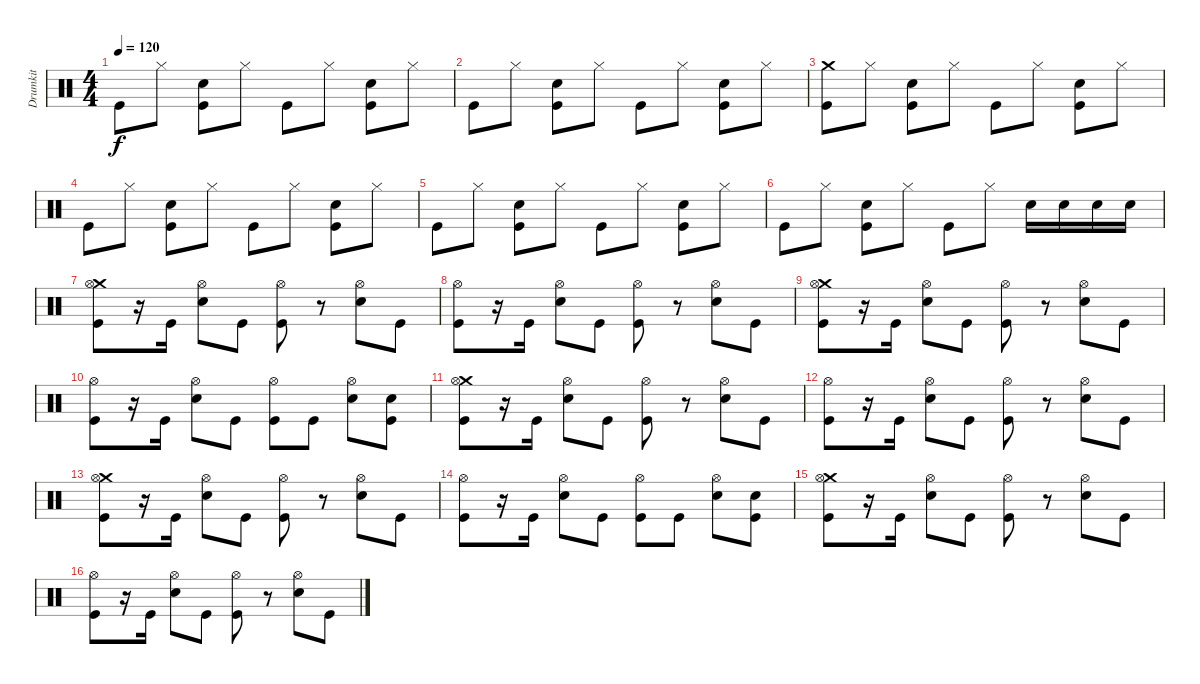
\track ("Drumkit" "Drumkit") {instrument percussion}
\staff {score}
\articulation defaults
\ts (4 4)
\tempo 120
\clef neutral
\ks c "Kick (hit)".8{dy f} "Hi-Hat (closed)".8
("Snare (hit) 2" "Kick (hit)").8 "Hi-Hat (closed)".8 "Kick (hit)".8 "Hi-Hat (closed)".8 ("Snare (hit) 2" "Kick (hit)").8 "Hi-Hat (closed)".8 |
"Kick (hit)".8 "Hi-Hat (closed)".8 ("Snare (hit) 2" "Kick (hit)").8 "Hi-Hat (closed)".8 "Kick (hit)".8 "Hi-Hat (closed)".8 ("Snare (hit) 2" "Kick (hit)").8 "Hi-Hat (closed)".8 |
("Crash medium (hit)" "Kick (hit)").8 "Hi-Hat (closed)".8 ("Snare (hit) 2" "Kick (hit)").8 "Hi-Hat (closed)".8 "Kick (hit)".8 "Hi-Hat (closed)".8 ("Snare (hit) 2" "Kick (hit)").8 "Hi-Hat (closed)".8 |
"Kick (hit)".8 "Hi-Hat (closed)".8 ("Snare (hit) 2" "Kick (hit)").8 "Hi-Hat (closed)".8 "Kick (hit)".8 "Hi-Hat (closed)".8 ("Snare (hit) 2" "Kick (hit)").8 "Hi-Hat (closed)".8 |
"Kick (hit)".8 "Hi-Hat (closed)".8 ("Snare (hit) 2" "Kick (hit)").8 "Hi-Hat (closed)".8 "Kick (hit)".8 "Hi-Hat (closed)".8 ("Snare (hit) 2" "Kick (hit)").8 "Hi-Hat (closed)".8 |
"Kick (hit)".8 "Hi-Hat (closed)".8 ("Snare (hit) 2" "Kick (hit)").8 "Hi-Hat (closed)".8 "Kick (hit)".8 "Hi-Hat (closed)".8 "Snare (hit) 2".16 "Snare (hit) 2".16 "Snare (hit) 2".16 "Snare (hit) 2".16 |
("Crash medium (hit)" "Hi-Hat (open)" "Kick (hit)").8 r.16 "Kick (hit)".16 ("Hi-Hat (open)" "Snare (hit) 2").8 "Kick (hit)".8 ("Hi-Hat (open)" "Kick (hit)").8 r.8 ("Hi-Hat (open)" "Snare (hit) 2").8 "Kick (hit)".8 |
("Hi-Hat (open)" "Kick (hit)").8 r.16 "Kick (hit)".16 ("Hi-Hat (open)" "Snare (hit) 2").8 "Kick (hit)".8 ("Hi-Hat (open)" "Kick (hit)").8 r.8 ("Hi-Hat (open)" "Snare (hit) 2").8 "Kick (hit)".8 |
("Crash medium (hit)" "Hi-Hat (open)" "Kick (hit)").8 r.16 "Kick (hit)".16 ("Hi-Hat (open)" "Snare (hit) 2").8 "Kick (hit)".8 ("Hi-Hat (open)" "Kick (hit)").8 r.8 ("Hi-Hat (open)" "Snare (hit) 2").8 "Kick (hit)".8 |
("Hi-Hat (open)" "Kick (hit)").8 r.16 "Kick (hit)".16 ("Hi-Hat (open)" "Snare (hit) 2").8 "Kick (hit)".8 ("Hi-Hat (open)" "Kick (hit)").8 "Kick (hit)".8 ("Hi-Hat (open)" "Snare (hit) 2").8 ("Snare (hit) 2" "Kick (hit)").8 |
("Crash medium (hit)" "Hi-Hat (open)" "Kick (hit)").8 r.16 "Kick (hit)".16 ("Hi-Hat (open)" "Snare (hit) 2").8 "Kick (hit)".8 ("Hi-Hat (open)" "Kick (hit)").8 r.8 ("Hi-Hat (open)" "Snare (hit) 2").8 "Kick (hit)".8 |
("Hi-Hat (open)" "Kick (hit)").8 r.16 "Kick (hit)".16 ("Hi-Hat (open)" "Snare (hit) 2").8 "Kick (hit)".8 ("Hi-Hat (open)" "Kick (hit)").8 r.8 ("Hi-Hat (open)" "Snare (hit) 2").8 "Kick (hit)".8 |
("Crash medium (hit)" "Hi-Hat (open)" "Kick (hit)").8 r.16 "Kick (hit)".16 ("Hi-Hat (open)" "Snare (hit) 2").8 "Kick (hit)".8 ("Hi-Hat (open)" "Kick (hit)").8 r.8 ("Hi-Hat (open)" "Snare (hit) 2").8 "Kick (hit)".8 |
("Hi-Hat (open)" "Kick (hit)").8 r.16 "Kick (hit)".16 ("Hi-Hat (open)" "Snare (hit) 2").8 "Kick (hit)".8 ("Hi-Hat (open)" "Kick (hit)").8 "Kick (hit)".8 ("Hi-Hat (open)" "Snare (hit) 2").8 ("Snare (hit) 2" "Kick (hit)").8 |
("Crash medium (hit)" "Hi-Hat (open)" "Kick (hit)").8 r.16 "Kick (hit)".16 ("Hi-Hat (open)" "Snare (hit) 2").8 "Kick (hit)".8 ("Hi-Hat (open)" "Kick (hit)").8 r.8 ("Hi-Hat (open)" "Snare (hit) 2").8 "Kick (hit)".8 |
("Hi-Hat (open)" "Kick (hit)").8 r.16 "Kick (hit)".16 ("Hi-Hat (open)" "Snare (hit) 2").8 "Kick (hit)".8 ("Hi-Hat (open)" "Kick (hit)").8 r.8 ("Hi-Hat (open)" "Snare (hit) 2").8 "Kick (hit)".8
